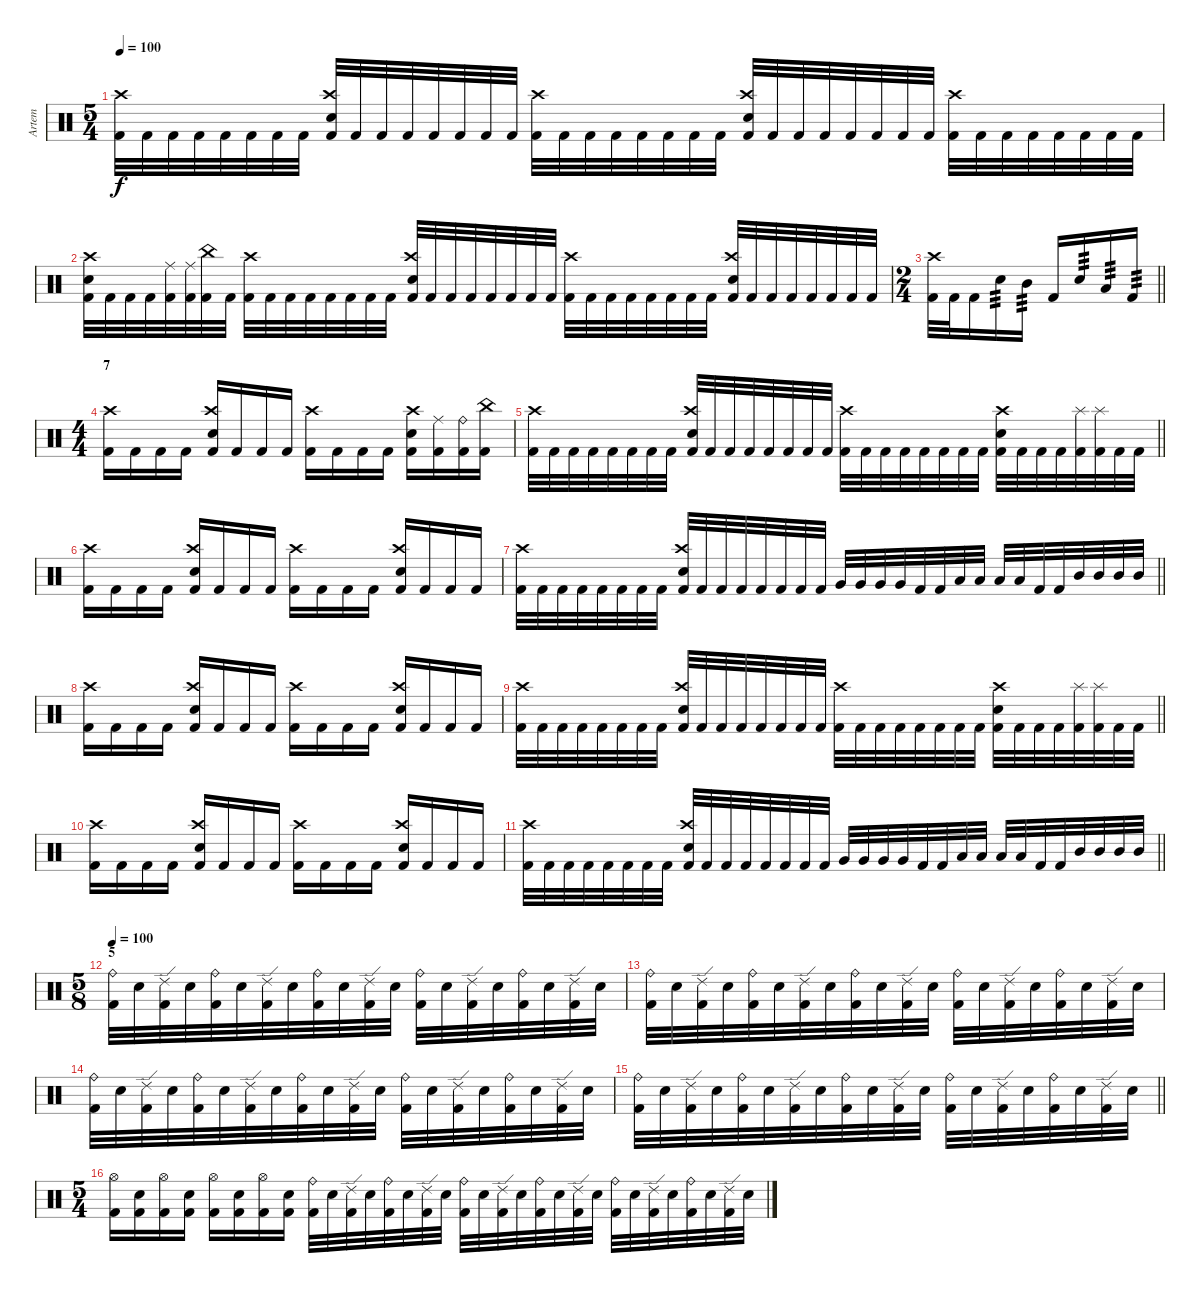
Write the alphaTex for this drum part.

\track ("Artem" "Artem") {instrument percussion}
\staff {score}
\articulation defaults
\ts (5 4)
\tempo 100
\clef neutral
\ks c
("Kick (hit) 2" "Crash high (hit)").32{dy f} "Kick (hit) 2".32 "Kick (hit) 2".32 "Kick (hit) 2".32 "Kick (hit) 2".32 "Kick (hit) 2".32 "Kick (hit) 2".32 "Kick (hit) 2".32 ("Kick (hit) 2" "Snare (hit) 2" "Crash high (hit)").32 "Kick (hit) 2".32 "Kick (hit) 2".32 "Kick (hit) 2".32 "Kick (hit) 2".32 "Kick (hit) 2".32 "Kick (hit) 2".32 "Kick (hit) 2".32 ("Kick (hit) 2" "Crash high (hit)").32 "Kick (hit) 2".32 "Kick (hit) 2".32 "Kick (hit) 2".32 "Kick (hit) 2".32 "Kick (hit) 2".32 "Kick (hit) 2".32 "Kick (hit) 2".32 ("Kick (hit) 2" "Snare (hit) 2" "Crash high (hit)").32 "Kick (hit) 2".32 "Kick (hit) 2".32 "Kick (hit) 2".32 "Kick (hit) 2".32 "Kick (hit) 2".32 "Kick (hit) 2".32 "Kick (hit) 2".32 ("Kick (hit) 2" "Crash high (hit)").32 "Kick (hit) 2".32 "Kick (hit) 2".32 "Kick (hit) 2".32 "Kick (hit) 2".32 "Kick (hit) 2".32 "Kick (hit) 2".32 "Kick (hit) 2".32 |
("Kick (hit) 2" "Snare (hit) 2" "Crash high (hit)").32 "Kick (hit) 2".32 "Kick (hit) 2".32 "Kick (hit) 2".32 ("Kick (hit) 2" "Ride (middle)").32 ("Kick (hit) 2" "Ride (middle)").32 ("Kick (hit) 2" "China (hit)").32 "Kick (hit) 2".32 ("Kick (hit) 2" "Crash high (hit)").32 "Kick (hit) 2".32 "Kick (hit) 2".32 "Kick (hit) 2".32 "Kick (hit) 2".32 "Kick (hit) 2".32 "Kick (hit) 2".32 "Kick (hit) 2".32 ("Kick (hit) 2" "Snare (hit) 2" "Crash high (hit)").32 "Kick (hit) 2".32 "Kick (hit) 2".32 "Kick (hit) 2".32 "Kick (hit) 2".32 "Kick (hit) 2".32 "Kick (hit) 2".32 "Kick (hit) 2".32 ("Kick (hit) 2" "Crash high (hit)").32 "Kick (hit) 2".32 "Kick (hit) 2".32 "Kick (hit) 2".32 "Kick (hit) 2".32 "Kick (hit) 2".32 "Kick (hit) 2".32 "Kick (hit) 2".32 ("Kick (hit) 2" "Snare (hit) 2" "Crash high (hit)").32 "Kick (hit) 2".32 "Kick (hit) 2".32 "Kick (hit) 2".32 "Kick (hit) 2".32 "Kick (hit) 2".32 "Kick (hit) 2".32 "Kick (hit) 2".32 |
\ts (2 4)
\barLineRight lightlight
("Kick (hit) 2" "Crash high (hit)").32 "Kick (hit) 2".32 "Kick (hit) 2".16 "Snare (hit) 2".16{tp 3} "Mid Tom (hit)".16{tp 3} "Kick (hit) 2".16 "Snare (hit) 2".16{tp 3} "Low Tom (hit)".16{tp 3} "Kick (hit) 2".16{tp 3} |
\ts (4 4)
\section ("" "7")
("Kick (hit) 2" "Crash high (hit)").16 "Kick (hit) 2".16 "Kick (hit) 2".16 "Kick (hit) 2".16 ("Kick (hit) 2" "Crash high (hit)" "Snare (hit) 2").16 "Kick (hit) 2".16 "Kick (hit) 2".16 "Kick (hit) 2".16 ("Kick (hit) 2" "Crash high (hit)").16 "Kick (hit) 2".16 "Kick (hit) 2".16 "Kick (hit) 2".16 ("Kick (hit) 2" "Crash high (hit)" "Snare (hit) 2").16 ("Kick (hit) 2" "Ride (middle)").16 ("Kick (hit) 2" "Ride (bell)").16 ("Kick (hit) 2" "China (hit)").16 |
\barLineRight lightlight
("Kick (hit) 2" "Crash high (hit)").32 "Kick (hit) 2".32 "Kick (hit) 2".32 "Kick (hit) 2".32 "Kick (hit) 2".32 "Kick (hit) 2".32 "Kick (hit) 2".32 "Kick (hit) 2".32 ("Kick (hit) 2" "Snare (hit) 2" "Crash high (hit)").32 "Kick (hit) 2".32 "Kick (hit) 2".32 "Kick (hit) 2".32 "Kick (hit) 2".32 "Kick (hit) 2".32 "Kick (hit) 2".32 "Kick (hit) 2".32 ("Kick (hit) 2" "Crash high (hit)").32 "Kick (hit) 2".32 "Kick (hit) 2".32 "Kick (hit) 2".32 "Kick (hit) 2".32 "Kick (hit) 2".32 "Kick (hit) 2".32 "Kick (hit) 2".32 ("Kick (hit) 2" "Snare (hit) 2" "Crash high (hit)").32 "Kick (hit) 2".32 "Kick (hit) 2".32 "Kick (hit) 2".32 ("Kick (hit) 2" "Splash (hit)").32 ("Kick (hit) 2" "Splash (hit)").32 "Kick (hit) 2".32 "Kick (hit) 2".32 |
("Kick (hit) 2" "Crash high (hit)").16 "Kick (hit) 2".16 "Kick (hit) 2".16 "Kick (hit) 2".16 ("Kick (hit) 2" "Crash high (hit)" "Snare (hit) 2").16 "Kick (hit) 2".16 "Kick (hit) 2".16 "Kick (hit) 2".16 ("Kick (hit) 2" "Crash high (hit)").16 "Kick (hit) 2".16 "Kick (hit) 2".16 "Kick (hit) 2".16 ("Kick (hit) 2" "Crash high (hit)" "Snare (hit) 2").16 "Kick (hit) 2".16 "Kick (hit) 2".16 "Kick (hit) 2".16 |
\barLineRight lightlight
("Kick (hit) 2" "Crash high (hit)").32 "Kick (hit) 2".32 "Kick (hit) 2".32 "Kick (hit) 2".32 "Kick (hit) 2".32 "Kick (hit) 2".32 "Kick (hit) 2".32 "Kick (hit) 2".32 ("Kick (hit) 2" "Snare (hit) 2" "Crash high (hit)").32 "Kick (hit) 2".32 "Kick (hit) 2".32 "Kick (hit) 2".32 "Kick (hit) 2".32 "Kick (hit) 2".32 "Kick (hit) 2".32 "Kick (hit) 2".32 "Very Low Tom (hit)".32 "Very Low Tom (hit)".32 "Very Low Tom (hit)".32 "Very Low Tom (hit)".32 "Kick (hit) 2".32 "Kick (hit) 2".32 "Low Tom (hit)".32 "Low Tom (hit)".32 "Low Tom (hit)".32 "Low Tom (hit)".32 "Kick (hit) 2".32 "Kick (hit) 2".32 "Mid Tom (hit)".32 "Mid Tom (hit)".32 "Mid Tom (hit)".32 "Mid Tom (hit)".32 |
("Kick (hit) 2" "Crash high (hit)").16 "Kick (hit) 2".16 "Kick (hit) 2".16 "Kick (hit) 2".16 ("Kick (hit) 2" "Crash high (hit)" "Snare (hit) 2").16 "Kick (hit) 2".16 "Kick (hit) 2".16 "Kick (hit) 2".16 ("Kick (hit) 2" "Crash high (hit)").16 "Kick (hit) 2".16 "Kick (hit) 2".16 "Kick (hit) 2".16 ("Kick (hit) 2" "Crash high (hit)" "Snare (hit) 2").16 "Kick (hit) 2".16 "Kick (hit) 2".16 "Kick (hit) 2".16 |
\barLineRight lightlight
("Kick (hit) 2" "Crash high (hit)").32 "Kick (hit) 2".32 "Kick (hit) 2".32 "Kick (hit) 2".32 "Kick (hit) 2".32 "Kick (hit) 2".32 "Kick (hit) 2".32 "Kick (hit) 2".32 ("Kick (hit) 2" "Snare (hit) 2" "Crash high (hit)").32 "Kick (hit) 2".32 "Kick (hit) 2".32 "Kick (hit) 2".32 "Kick (hit) 2".32 "Kick (hit) 2".32 "Kick (hit) 2".32 "Kick (hit) 2".32 ("Kick (hit) 2" "Crash high (hit)").32 "Kick (hit) 2".32 "Kick (hit) 2".32 "Kick (hit) 2".32 "Kick (hit) 2".32 "Kick (hit) 2".32 "Kick (hit) 2".32 "Kick (hit) 2".32 ("Kick (hit) 2" "Snare (hit) 2" "Crash high (hit)").32 "Kick (hit) 2".32 "Kick (hit) 2".32 "Kick (hit) 2".32 ("Kick (hit) 2" "Splash (hit)").32 ("Kick (hit) 2" "Splash (hit)").32 "Kick (hit) 2".32 "Kick (hit) 2".32 |
("Kick (hit) 2" "Crash high (hit)").16 "Kick (hit) 2".16 "Kick (hit) 2".16 "Kick (hit) 2".16 ("Kick (hit) 2" "Crash high (hit)" "Snare (hit) 2").16 "Kick (hit) 2".16 "Kick (hit) 2".16 "Kick (hit) 2".16 ("Kick (hit) 2" "Crash high (hit)").16 "Kick (hit) 2".16 "Kick (hit) 2".16 "Kick (hit) 2".16 ("Kick (hit) 2" "Crash high (hit)" "Snare (hit) 2").16 "Kick (hit) 2".16 "Kick (hit) 2".16 "Kick (hit) 2".16 |
\barLineRight lightlight
("Kick (hit) 2" "Crash high (hit)").32 "Kick (hit) 2".32 "Kick (hit) 2".32 "Kick (hit) 2".32 "Kick (hit) 2".32 "Kick (hit) 2".32 "Kick (hit) 2".32 "Kick (hit) 2".32 ("Kick (hit) 2" "Snare (hit) 2" "Crash high (hit)").32 "Kick (hit) 2".32 "Kick (hit) 2".32 "Kick (hit) 2".32 "Kick (hit) 2".32 "Kick (hit) 2".32 "Kick (hit) 2".32 "Kick (hit) 2".32 "Very Low Tom (hit)".32 "Very Low Tom (hit)".32 "Very Low Tom (hit)".32 "Very Low Tom (hit)".32 "Kick (hit) 2".32 "Kick (hit) 2".32 "Low Tom (hit)".32 "Low Tom (hit)".32 "Low Tom (hit)".32 "Low Tom (hit)".32 "Kick (hit) 2".32 "Kick (hit) 2".32 "Mid Tom (hit)".32 "Mid Tom (hit)".32 "Mid Tom (hit)".32 "Mid Tom (hit)".32 |
\ts (5 8)
\section ("" "5")
\tempo 100
("Kick (hit) 2" "Ride (bell)").32 "Snare (hit) 2".32 ("Kick (hit) 2" "Ride (edge) 2").32 "Snare (hit) 2".32 ("Kick (hit) 2" "Ride (bell)").32 "Snare (hit) 2".32 ("Kick (hit) 2" "Ride (edge) 2").32 "Snare (hit) 2".32 ("Kick (hit) 2" "Ride (bell)").32 "Snare (hit) 2".32 ("Kick (hit) 2" "Ride (edge) 2").32 "Snare (hit) 2".32 ("Kick (hit) 2" "Ride (bell)").32 "Snare (hit) 2".32 ("Kick (hit) 2" "Ride (edge) 2").32 "Snare (hit) 2".32 ("Kick (hit) 2" "Ride (bell)").32 "Snare (hit) 2".32 ("Kick (hit) 2" "Ride (edge) 2").32 "Snare (hit) 2".32 |
("Kick (hit) 2" "Ride (bell)").32 "Snare (hit) 2".32 ("Kick (hit) 2" "Ride (edge) 2").32 "Snare (hit) 2".32 ("Kick (hit) 2" "Ride (bell)").32 "Snare (hit) 2".32 ("Kick (hit) 2" "Ride (edge) 2").32 "Snare (hit) 2".32 ("Kick (hit) 2" "Ride (bell)").32 "Snare (hit) 2".32 ("Kick (hit) 2" "Ride (edge) 2").32 "Snare (hit) 2".32 ("Kick (hit) 2" "Ride (bell)").32 "Snare (hit) 2".32 ("Kick (hit) 2" "Ride (edge) 2").32 "Snare (hit) 2".32 ("Kick (hit) 2" "Ride (bell)").32 "Snare (hit) 2".32 ("Kick (hit) 2" "Ride (edge) 2").32 "Snare (hit) 2".32 |
("Kick (hit) 2" "Ride (bell)").32 "Snare (hit) 2".32 ("Kick (hit) 2" "Ride (edge) 2").32 "Snare (hit) 2".32 ("Kick (hit) 2" "Ride (bell)").32 "Snare (hit) 2".32 ("Kick (hit) 2" "Ride (edge) 2").32 "Snare (hit) 2".32 ("Kick (hit) 2" "Ride (bell)").32 "Snare (hit) 2".32 ("Kick (hit) 2" "Ride (edge) 2").32 "Snare (hit) 2".32 ("Kick (hit) 2" "Ride (bell)").32 "Snare (hit) 2".32 ("Kick (hit) 2" "Ride (edge) 2").32 "Snare (hit) 2".32 ("Kick (hit) 2" "Ride (bell)").32 "Snare (hit) 2".32 ("Kick (hit) 2" "Ride (edge) 2").32 "Snare (hit) 2".32 |
\barLineRight lightlight
("Kick (hit) 2" "Ride (bell)").32 "Snare (hit) 2".32 ("Kick (hit) 2" "Ride (edge) 2").32 "Snare (hit) 2".32 ("Kick (hit) 2" "Ride (bell)").32 "Snare (hit) 2".32 ("Kick (hit) 2" "Ride (edge) 2").32 "Snare (hit) 2".32 ("Kick (hit) 2" "Ride (bell)").32 "Snare (hit) 2".32 ("Kick (hit) 2" "Ride (edge) 2").32 "Snare (hit) 2".32 ("Kick (hit) 2" "Ride (bell)").32 "Snare (hit) 2".32 ("Kick (hit) 2" "Ride (edge) 2").32 "Snare (hit) 2".32 ("Kick (hit) 2" "Ride (bell)").32 "Snare (hit) 2".32 ("Kick (hit) 2" "Ride (edge) 2").32 "Snare (hit) 2".32 |
\ts (5 4)
("Kick (hit) 2" "Hi-Hat (open)").16 ("Kick (hit) 2" "Snare (hit) 2").16 ("Kick (hit) 2" "Hi-Hat (open)").16 ("Kick (hit) 2" "Snare (hit) 2").16 ("Kick (hit) 2" "Hi-Hat (open)").16 ("Kick (hit) 2" "Snare (hit) 2").16 ("Kick (hit) 2" "Hi-Hat (open)").16 ("Kick (hit) 2" "Snare (hit) 2").16 ("Kick (hit) 2" "Ride (bell)").32 "Snare (hit) 2".32 ("Kick (hit) 2" "Ride (edge) 2").32 "Snare (hit) 2".32 ("Kick (hit) 2" "Ride (bell)").32 "Snare (hit) 2".32 ("Kick (hit) 2" "Ride (edge) 2").32 "Snare (hit) 2".32 ("Kick (hit) 2" "Ride (bell)").32 "Snare (hit) 2".32 ("Kick (hit) 2" "Ride (edge) 2").32 "Snare (hit) 2".32 ("Kick (hit) 2" "Ride (bell)").32 "Snare (hit) 2".32 ("Kick (hit) 2" "Ride (edge) 2").32 "Snare (hit) 2".32 ("Kick (hit) 2" "Ride (bell)").32 "Snare (hit) 2".32 ("Kick (hit) 2" "Ride (edge) 2").32 "Snare (hit) 2".32 ("Kick (hit) 2" "Ride (bell)").32 "Snare (hit) 2".32 ("Kick (hit) 2" "Ride (edge) 2").32 "Snare (hit) 2".32
